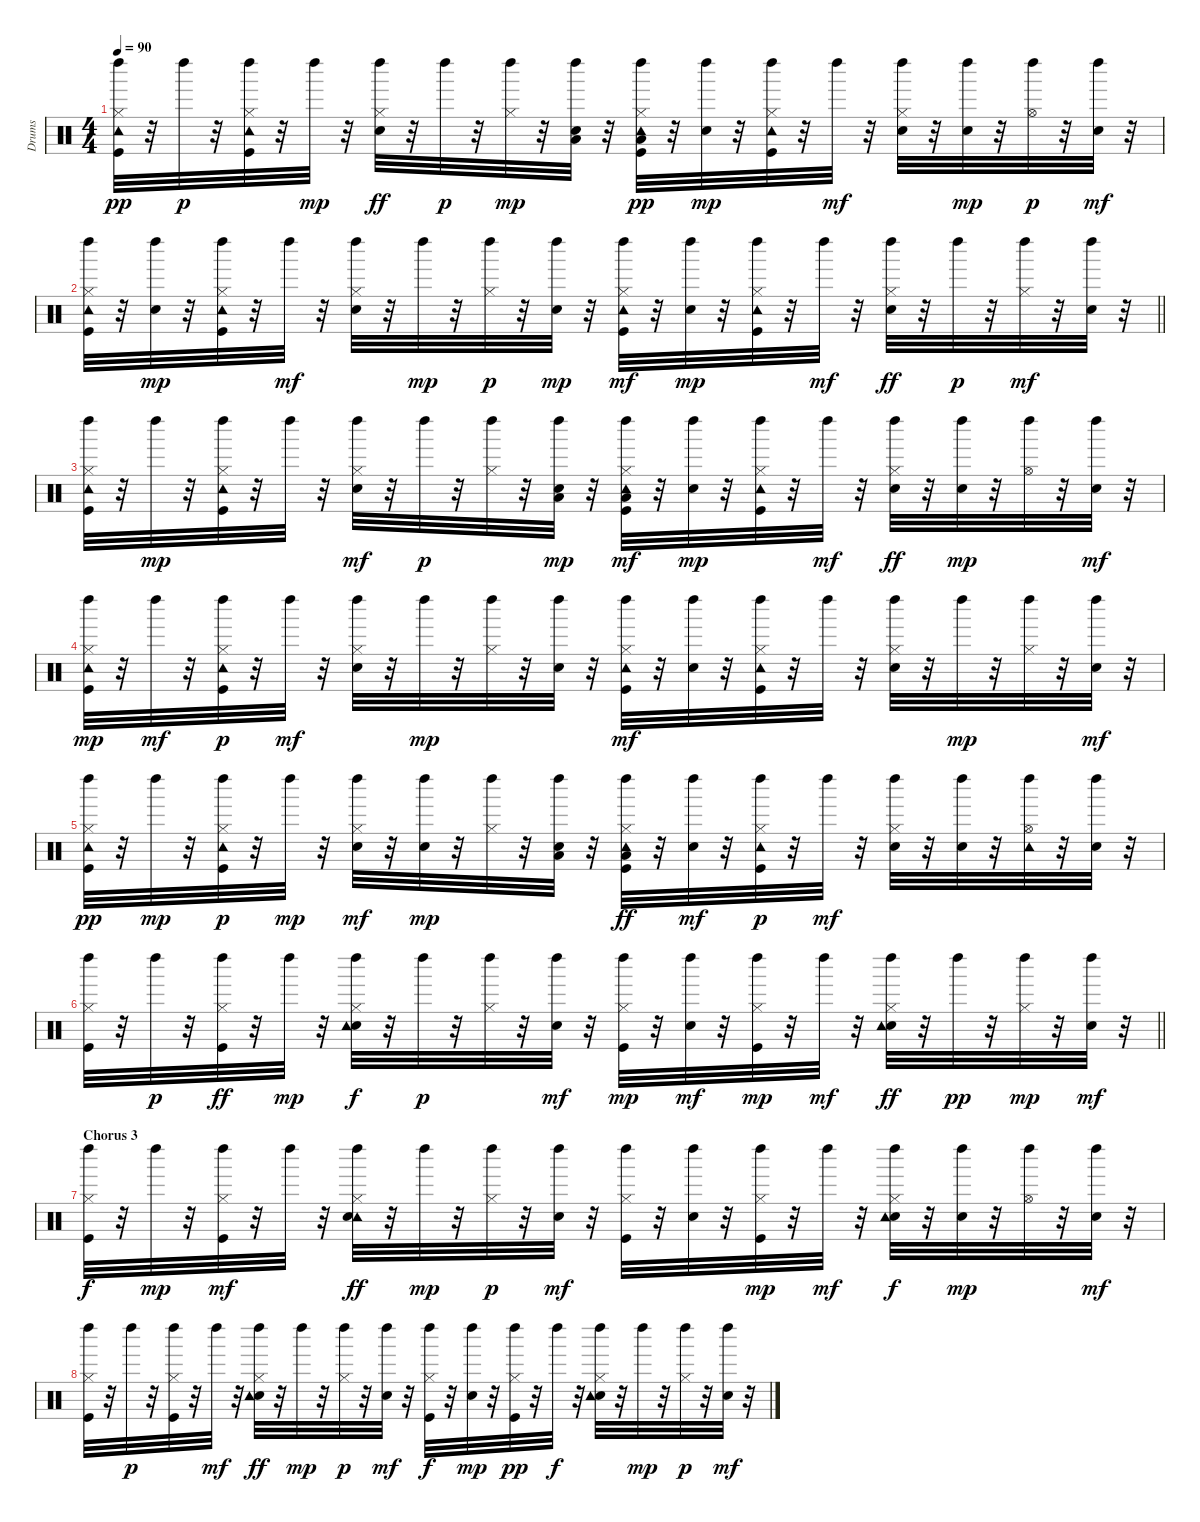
\track ("Drums" "Drums") {instrument percussion}
\staff {score}
\articulation defaults
\ts (4 4)
\tempo 90
\clef neutral
\ks c
("Kick (hit)" "Left Maraca (hit)" "Hi-Hat (closed)" "Tambourine (hit)").32{dy pp} r.32 "Left Maraca (hit)".32{dy p} r.32 ("Kick (hit)" "Tambourine (hit)" "Hi-Hat (closed)" "Left Maraca (hit)").32 r.32 "Left Maraca (hit)".32{dy mp} r.32 ("Electric Snare (hit)" "Left Maraca (hit)" "Hi-Hat (closed)").32{dy ff} r.32 "Left Maraca (hit)".32{dy p} r.32 ("Left Maraca (hit)" "Hi-Hat (closed)").32{dy mp} r.32 ("Electric Snare (hit)" "Left Maraca (hit)" "Low Tom (hit)").32 r.32 ("Left Maraca (hit)" "Kick (hit)" "Hi-Hat (closed)" "Low Floor Tom (hit)" "Tambourine (hit)").32{dy pp} r.32 ("Electric Snare (hit)" "Left Maraca (hit)").32{dy mp} r.32 ("Kick (hit)" "Hi-Hat (closed)" "Tambourine (hit)" "Left Maraca (hit)").32 r.32 "Left Maraca (hit)".32{dy mf} r.32 ("Electric Snare (hit)" "Left Maraca (hit)" "Hi-Hat (closed)").32 r.32 ("Electric Snare (hit)" "Left Maraca (hit)").32{dy mp} r.32 ("Hi-Hat (open)" "Left Maraca (hit)").32{dy p} r.32 ("Left Maraca (hit)" "Electric Snare (hit)").32{dy mf} r.32 |
\barLineRight lightlight
("Tambourine (hit)" "Kick (hit)" "Left Maraca (hit)" "Hi-Hat (closed)").32 r.32 ("Electric Snare (hit)" "Left Maraca (hit)").32{dy mp} r.32 ("Kick (hit)" "Hi-Hat (closed)" "Tambourine (hit)" "Left Maraca (hit)").32 r.32 "Left Maraca (hit)".32{dy mf} r.32 ("Hi-Hat (closed)" "Left Maraca (hit)" "Electric Snare (hit)").32 r.32 "Left Maraca (hit)".32{dy mp} r.32 ("Hi-Hat (closed)" "Left Maraca (hit)").32{dy p} r.32 ("Electric Snare (hit)" "Left Maraca (hit)").32{dy mp} r.32 ("Kick (hit)" "Tambourine (hit)" "Hi-Hat (closed)" "Left Maraca (hit)").32{dy mf} r.32 ("Electric Snare (hit)" "Left Maraca (hit)").32{dy mp} r.32 ("Kick (hit)" "Tambourine (hit)" "Hi-Hat (closed)" "Left Maraca (hit)").32 r.32 "Left Maraca (hit)".32{dy mf} r.32 ("Left Maraca (hit)" "Hi-Hat (closed)" "Electric Snare (hit)").32{dy ff} r.32 "Left Maraca (hit)".32{dy p} r.32 ("Left Maraca (hit)" "Hi-Hat (closed)").32{dy mf} r.32 ("Left Maraca (hit)" "Electric Snare (hit)").32 r.32 |
("Kick (hit)" "Tambourine (hit)" "Left Maraca (hit)" "Hi-Hat (closed)").32 r.32 "Left Maraca (hit)".32{dy mp} r.32 ("Hi-Hat (closed)" "Kick (hit)" "Tambourine (hit)" "Left Maraca (hit)").32 r.32 "Left Maraca (hit)".32 r.32 ("Hi-Hat (closed)" "Electric Snare (hit)" "Left Maraca (hit)").32{dy mf} r.32 "Left Maraca (hit)".32{dy p} r.32 ("Hi-Hat (closed)" "Left Maraca (hit)").32 r.32 ("Low Tom (hit)" "Electric Snare (hit)" "Left Maraca (hit)").32{dy mp} r.32 ("Kick (hit)" "Low Floor Tom (hit)" "Tambourine (hit)" "Left Maraca (hit)" "Hi-Hat (closed)").32{dy mf} r.32 ("Electric Snare (hit)" "Left Maraca (hit)").32{dy mp} r.32 ("Kick (hit)" "Tambourine (hit)" "Hi-Hat (closed)" "Left Maraca (hit)").32 r.32 "Left Maraca (hit)".32{dy mf} r.32 ("Electric Snare (hit)" "Left Maraca (hit)" "Hi-Hat (closed)").32{dy ff} r.32 ("Electric Snare (hit)" "Left Maraca (hit)").32{dy mp} r.32 ("Hi-Hat (open)" "Left Maraca (hit)").32 r.32 ("Electric Snare (hit)" "Left Maraca (hit)").32{dy mf} r.32 |
("Kick (hit)" "Tambourine (hit)" "Left Maraca (hit)" "Hi-Hat (closed)").32{dy mp} r.32 "Left Maraca (hit)".32{dy mf} r.32 ("Left Maraca (hit)" "Kick (hit)" "Hi-Hat (closed)" "Tambourine (hit)").32{dy p} r.32 "Left Maraca (hit)".32{dy mf} r.32 ("Hi-Hat (closed)" "Electric Snare (hit)" "Left Maraca (hit)").32 r.32 "Left Maraca (hit)".32{dy mp} r.32 ("Hi-Hat (closed)" "Left Maraca (hit)").32 r.32 ("Electric Snare (hit)" "Left Maraca (hit)").32 r.32 ("Kick (hit)" "Tambourine (hit)" "Hi-Hat (closed)" "Left Maraca (hit)").32{dy mf} r.32 ("Electric Snare (hit)" "Left Maraca (hit)").32 r.32 ("Kick (hit)" "Tambourine (hit)" "Hi-Hat (closed)" "Left Maraca (hit)").32 r.32 "Left Maraca (hit)".32 r.32 ("Left Maraca (hit)" "Hi-Hat (closed)" "Electric Snare (hit)").32 r.32 "Left Maraca (hit)".32{dy mp} r.32 ("Hi-Hat (closed)" "Left Maraca (hit)").32 r.32 ("Left Maraca (hit)" "Electric Snare (hit)").32{dy mf} r.32 |
("Left Maraca (hit)" "Kick (hit)" "Tambourine (hit)" "Hi-Hat (closed)").32{dy pp} r.32 "Left Maraca (hit)".32{dy mp} r.32 ("Left Maraca (hit)" "Hi-Hat (closed)" "Kick (hit)" "Tambourine (hit)").32{dy p} r.32 "Left Maraca (hit)".32{dy mp} r.32 ("Electric Snare (hit)" "Hi-Hat (closed)" "Left Maraca (hit)").32{dy mf} r.32 ("Left Maraca (hit)" "Electric Snare (hit)").32{dy mp} r.32 ("Hi-Hat (closed)" "Left Maraca (hit)").32 r.32 ("Electric Snare (hit)" "Low Tom (hit)" "Left Maraca (hit)").32 r.32 ("Low Floor Tom (hit)" "Tambourine (hit)" "Left Maraca (hit)" "Kick (hit)" "Hi-Hat (closed)").32{dy ff} r.32 ("Electric Snare (hit)" "Left Maraca (hit)").32{dy mf} r.32 ("Kick (hit)" "Left Maraca (hit)" "Hi-Hat (closed)" "Tambourine (hit)").32{dy p} r.32 "Left Maraca (hit)".32{dy mf} r.32 ("Electric Snare (hit)" "Hi-Hat (closed)" "Left Maraca (hit)").32 r.32 ("Electric Snare (hit)" "Left Maraca (hit)").32 r.32 ("Hi-Hat (open)" "Tambourine (hit)" "Left Maraca (hit)").32 r.32 ("Electric Snare (hit)" "Left Maraca (hit)").32 r.32 |
\barLineRight lightlight
("Kick (hit)" "Hi-Hat (closed)" "Left Maraca (hit)").32 r.32 "Left Maraca (hit)".32{dy p} r.32 ("Left Maraca (hit)" "Hi-Hat (closed)" "Kick (hit)").32{dy ff} r.32 "Left Maraca (hit)".32{dy mp} r.32 ("Electric Snare (hit)" "Hi-Hat (closed)" "Tambourine (hit)" "Left Maraca (hit)").32{dy f} r.32 "Left Maraca (hit)".32{dy p} r.32 ("Hi-Hat (closed)" "Left Maraca (hit)").32 r.32 ("Electric Snare (hit)" "Left Maraca (hit)").32{dy mf} r.32 ("Hi-Hat (closed)" "Kick (hit)" "Left Maraca (hit)").32{dy mp} r.32 ("Electric Snare (hit)" "Left Maraca (hit)").32{dy mf} r.32 ("Kick (hit)" "Hi-Hat (closed)" "Left Maraca (hit)").32{dy mp} r.32 "Left Maraca (hit)".32{dy mf} r.32 ("Electric Snare (hit)" "Tambourine (hit)" "Hi-Hat (closed)" "Left Maraca (hit)").32{dy ff} r.32 "Left Maraca (hit)".32{dy pp} r.32 ("Hi-Hat (closed)" "Left Maraca (hit)").32{dy mp} r.32 ("Electric Snare (hit)" "Left Maraca (hit)").32{dy mf} r.32 |
\section ("" "Chorus 3")
("Kick (hit)" "Left Maraca (hit)" "Hi-Hat (closed)").32{dy f} r.32 "Left Maraca (hit)".32{dy mp} r.32 ("Kick (hit)" "Left Maraca (hit)" "Hi-Hat (closed)").32{dy mf} r.32 "Left Maraca (hit)".32 r.32 ("Tambourine (hit)" "Left Maraca (hit)" "Hi-Hat (closed)" "Electric Snare (hit)").32{dy ff} r.32 "Left Maraca (hit)".32{dy mp} r.32 ("Hi-Hat (closed)" "Left Maraca (hit)").32{dy p} r.32 ("Left Maraca (hit)" "Electric Snare (hit)").32{dy mf} r.32 ("Hi-Hat (closed)" "Left Maraca (hit)" "Kick (hit)").32 r.32 ("Left Maraca (hit)" "Electric Snare (hit)").32 r.32 ("Hi-Hat (closed)" "Kick (hit)" "Left Maraca (hit)").32{dy mp} r.32 "Left Maraca (hit)".32{dy mf} r.32 ("Hi-Hat (closed)" "Electric Snare (hit)" "Tambourine (hit)" "Left Maraca (hit)").32{dy f} r.32 ("Electric Snare (hit)" "Left Maraca (hit)").32{dy mp} r.32 ("Hi-Hat (open)" "Left Maraca (hit)").32 r.32 ("Electric Snare (hit)" "Left Maraca (hit)").32{dy mf} r.32 |
("Hi-Hat (closed)" "Kick (hit)" "Left Maraca (hit)").32 r.32 "Left Maraca (hit)".32{dy p} r.32 ("Hi-Hat (closed)" "Kick (hit)" "Left Maraca (hit)").32 r.32 "Left Maraca (hit)".32{dy mf} r.32 ("Hi-Hat (closed)" "Electric Snare (hit)" "Tambourine (hit)" "Left Maraca (hit)").32{dy ff} r.32 "Left Maraca (hit)".32{dy mp} r.32 ("Hi-Hat (closed)" "Left Maraca (hit)").32{dy p} r.32 ("Electric Snare (hit)" "Left Maraca (hit)").32{dy mf} r.32 ("Hi-Hat (closed)" "Kick (hit)" "Left Maraca (hit)").32{dy f} r.32 ("Electric Snare (hit)" "Left Maraca (hit)").32{dy mp} r.32 ("Hi-Hat (closed)" "Kick (hit)" "Left Maraca (hit)").32{dy pp} r.32 "Left Maraca (hit)".32{dy f} r.32 ("Electric Snare (hit)" "Tambourine (hit)" "Left Maraca (hit)" "Hi-Hat (closed)").32 r.32 "Left Maraca (hit)".32{dy mp} r.32 ("Hi-Hat (closed)" "Left Maraca (hit)").32{dy p} r.32 ("Left Maraca (hit)" "Electric Snare (hit)").32{dy mf} r.32
